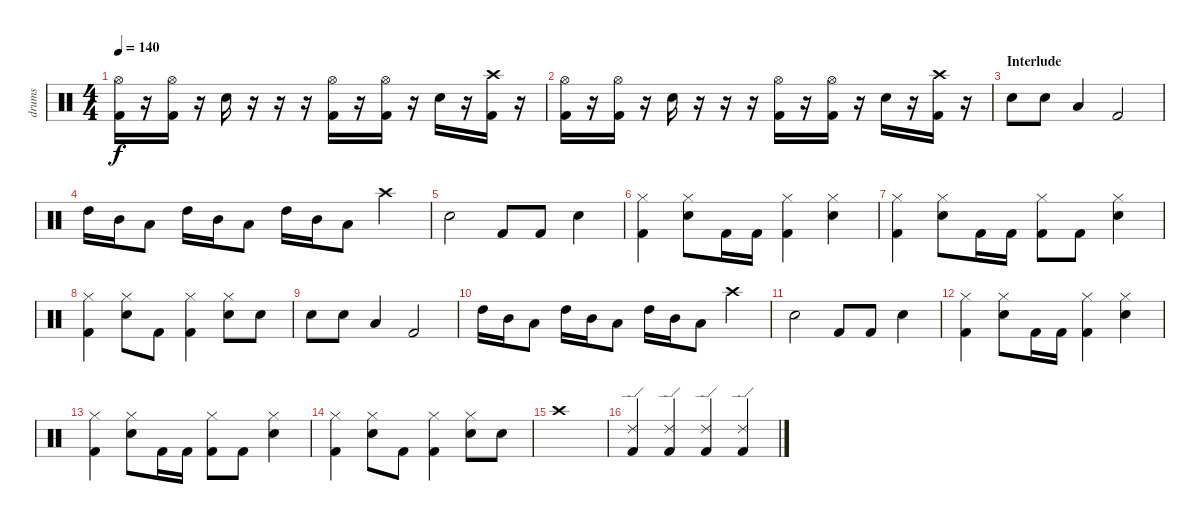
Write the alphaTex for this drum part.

\track ("drums" "drums") {instrument percussion}
\staff {score}
\articulation defaults
\ts (4 4)
\tempo 140
\clef neutral
\ks c
("Hi-Hat (open)" "Kick (hit) 2").16{dy f} r.16 ("Hi-Hat (open)" "Kick (hit) 2").16 r.16 "Electric Snare (hit)".16 r.16 r.16 r.16 ("Hi-Hat (open)" "Kick (hit) 2").16 r.16 ("Hi-Hat (open)" "Kick (hit) 2").16 r.16 "Electric Snare (hit)".16 r.16 ("Crash high (hit)" "Kick (hit) 2").16 r.16 |
("Hi-Hat (open)" "Kick (hit) 2").16 r.16 ("Hi-Hat (open)" "Kick (hit) 2").16 r.16 "Electric Snare (hit)".16 r.16 r.16 r.16 ("Hi-Hat (open)" "Kick (hit) 2").16 r.16 ("Hi-Hat (open)" "Kick (hit) 2").16 r.16 "Electric Snare (hit)".16 r.16 ("Crash high (hit)" "Kick (hit) 2").16 r.16 |
\section ("" "Interlude")
"Electric Snare (hit)".8 "Electric Snare (hit)".8 "Low Tom (hit)".4 "Kick (hit) 2".2 |
"High Tom (hit)".16 "Mid Tom (hit)".16 "Low Tom (hit)".8 "High Tom (hit)".16 "Mid Tom (hit)".16 "Low Tom (hit)".8 "High Tom (hit)".16 "Mid Tom (hit)".16 "Low Tom (hit)".8 "Crash high (hit)".4 |
"Electric Snare (hit)".2 "Kick (hit) 2".8 "Kick (hit) 2".8 "Electric Snare (hit)".4 |
("Hi-Hat (closed)" "Kick (hit) 2").4 ("Hi-Hat (closed)" "Electric Snare (hit)").8 "Kick (hit) 2".16 "Kick (hit) 2".16 ("Hi-Hat (closed)" "Kick (hit) 2").4 ("Hi-Hat (closed)" "Electric Snare (hit)").4 |
("Hi-Hat (closed)" "Kick (hit) 2").4 ("Hi-Hat (closed)" "Electric Snare (hit)").8 "Kick (hit) 2".16 "Kick (hit) 2".16 ("Hi-Hat (closed)" "Kick (hit) 2").8 "Kick (hit) 2".8 ("Hi-Hat (closed)" "Electric Snare (hit)").4 |
("Hi-Hat (closed)" "Kick (hit) 2").4 ("Hi-Hat (closed)" "Electric Snare (hit)").8 "Kick (hit) 2".8 ("Hi-Hat (closed)" "Kick (hit) 2").4 ("Hi-Hat (closed)" "Electric Snare (hit)").8 "Electric Snare (hit)".8 |
"Electric Snare (hit)".8 "Electric Snare (hit)".8 "Low Tom (hit)".4 "Kick (hit) 2".2 |
"High Tom (hit)".16 "Mid Tom (hit)".16 "Low Tom (hit)".8 "High Tom (hit)".16 "Mid Tom (hit)".16 "Low Tom (hit)".8 "High Tom (hit)".16 "Mid Tom (hit)".16 "Low Tom (hit)".8 "Crash high (hit)".4 |
"Electric Snare (hit)".2 "Kick (hit) 2".8 "Kick (hit) 2".8 "Electric Snare (hit)".4 |
("Hi-Hat (closed)" "Kick (hit) 2").4 ("Hi-Hat (closed)" "Electric Snare (hit)").8 "Kick (hit) 2".16 "Kick (hit) 2".16 ("Hi-Hat (closed)" "Kick (hit) 2").4 ("Hi-Hat (closed)" "Electric Snare (hit)").4 |
("Hi-Hat (closed)" "Kick (hit) 2").4 ("Hi-Hat (closed)" "Electric Snare (hit)").8 "Kick (hit) 2".16 "Kick (hit) 2".16 ("Hi-Hat (closed)" "Kick (hit) 2").8 "Kick (hit) 2".8 ("Hi-Hat (closed)" "Electric Snare (hit)").4 |
("Hi-Hat (closed)" "Kick (hit) 2").4 ("Hi-Hat (closed)" "Electric Snare (hit)").8 "Kick (hit) 2".8 ("Hi-Hat (closed)" "Kick (hit) 2").4 ("Hi-Hat (closed)" "Electric Snare (hit)").8 "Electric Snare (hit)".8 |
"Crash high (hit)".1 |
("Ride (edge) 2" "Kick (hit) 2").4 ("Ride (edge) 2" "Kick (hit) 2").4 ("Ride (edge) 2" "Kick (hit) 2").4 ("Ride (edge) 2" "Kick (hit) 2").4
